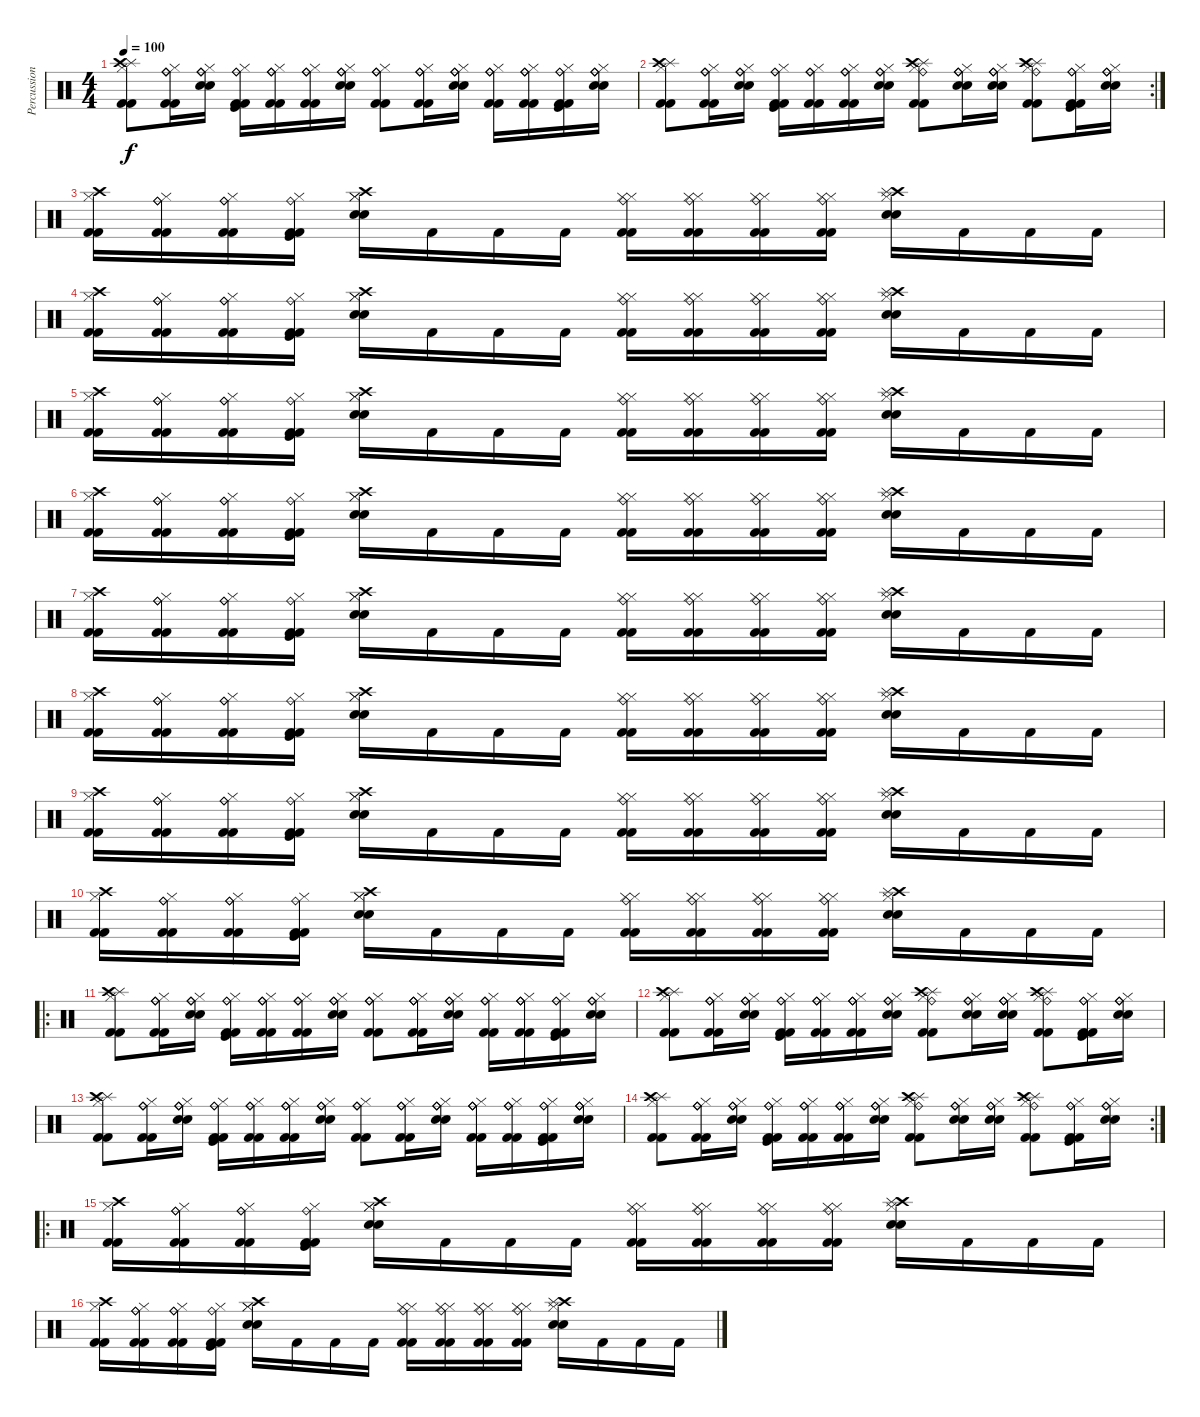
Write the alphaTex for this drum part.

\track ("Percussion" "Percussion") {instrument percussion}
\staff {score}
\articulation defaults
\ts (4 4)
\tempo 100
\clef neutral
\ks c
("Splash (hit)" "Crash high (hit)" "Hi-Hat (closed)" "Kick (hit) 2" "Kick (hit) 2").8{dy f} ("Ride (bell)" "Ride (bell)" "Ride (bell)" "Hi-Hat (closed)" "Kick (hit) 2" "Kick (hit) 2").16 ("Ride (bell)" "Ride (bell)" "Ride (bell)" "Hi-Hat (closed)" "Snare (hit) 2" "Snare (hit) 2").16 ("Ride (bell)" "Ride (bell)" "Kick (hit)" "Hi-Hat (closed)" "Kick (hit) 2" "Kick (hit) 2").16 ("Ride (bell)" "Ride (bell)" "Ride (bell)" "Hi-Hat (closed)" "Kick (hit) 2" "Kick (hit) 2").16 ("Ride (bell)" "Ride (bell)" "Ride (bell)" "Hi-Hat (closed)" "Kick (hit) 2" "Kick (hit) 2").16 ("Ride (bell)" "Ride (bell)" "Ride (bell)" "Hi-Hat (closed)" "Snare (hit) 2" "Snare (hit) 2").16 ("Ride (bell)" "Ride (bell)" "Ride (bell)" "Hi-Hat (closed)" "Kick (hit) 2" "Kick (hit) 2").8 ("Ride (bell)" "Ride (bell)" "Ride (bell)" "Hi-Hat (closed)" "Kick (hit) 2" "Kick (hit) 2").16 ("Ride (bell)" "Ride (bell)" "Ride (bell)" "Hi-Hat (closed)" "Snare (hit) 2" "Snare (hit) 2").16 ("Ride (bell)" "Ride (bell)" "Ride (bell)" "Hi-Hat (closed)" "Kick (hit) 2" "Kick (hit) 2").16 ("Ride (bell)" "Ride (bell)" "Ride (bell)" "Hi-Hat (closed)" "Kick (hit) 2" "Kick (hit) 2").16 ("Kick (hit)" "Ride (bell)" "Ride (bell)" "Hi-Hat (closed)" "Kick (hit) 2" "Kick (hit) 2").16 ("Ride (bell)" "Ride (bell)" "Ride (bell)" "Hi-Hat (closed)" "Snare (hit) 2" "Snare (hit) 2").16 |
\rc 2
("Splash (hit)" "Crash high (hit)" "Hi-Hat (closed)" "Kick (hit) 2" "Kick (hit) 2").8 ("Ride (bell)" "Ride (bell)" "Ride (bell)" "Hi-Hat (closed)" "Kick (hit) 2" "Kick (hit) 2").16 ("Ride (bell)" "Ride (bell)" "Ride (bell)" "Hi-Hat (closed)" "Snare (hit) 2" "Snare (hit) 2").16 ("Ride (bell)" "Ride (bell)" "Kick (hit)" "Hi-Hat (closed)" "Kick (hit) 2" "Kick (hit) 2").16 ("Ride (bell)" "Ride (bell)" "Ride (bell)" "Hi-Hat (closed)" "Kick (hit) 2" "Kick (hit) 2").16 ("Ride (bell)" "Ride (bell)" "Ride (bell)" "Hi-Hat (closed)" "Kick (hit) 2" "Kick (hit) 2").16 ("Ride (bell)" "Ride (bell)" "Ride (bell)" "Hi-Hat (closed)" "Snare (hit) 2" "Snare (hit) 2").16 ("Splash (hit)" "Ride (bell)" "Crash high (hit)" "Hi-Hat (closed)" "Kick (hit) 2" "Kick (hit) 2").8 ("Ride (bell)" "Ride (bell)" "Ride (bell)" "Hi-Hat (closed)" "Snare (hit) 2" "Snare (hit) 2").16 ("Ride (bell)" "Ride (bell)" "Ride (bell)" "Hi-Hat (closed)" "Snare (hit) 2" "Snare (hit) 2").16 ("Splash (hit)" "Ride (bell)" "Crash high (hit)" "Hi-Hat (closed)" "Kick (hit) 2" "Kick (hit) 2").8 ("Kick (hit)" "Ride (bell)" "Ride (bell)" "Hi-Hat (closed)" "Kick (hit) 2" "Kick (hit) 2").16 ("Ride (bell)" "Ride (bell)" "Ride (bell)" "Hi-Hat (closed)" "Snare (hit) 2" "Snare (hit) 2").16 |
("Crash high (hit)" "Hi-Hat (closed)" "Kick (hit) 2" "Kick (hit) 2").16 ("Ride (bell)" "Ride (bell)" "Hi-Hat (closed)" "Kick (hit) 2" "Kick (hit) 2").16 ("Ride (bell)" "Ride (bell)" "Hi-Hat (closed)" "Kick (hit) 2" "Kick (hit) 2").16 ("Ride (bell)" "Kick (hit)" "Hi-Hat (closed)" "Kick (hit) 2" "Kick (hit) 2").16 ("Crash high (hit)" "Hi-Hat (closed)" "Hi-Hat (closed)" "Snare (hit) 2" "Snare (hit) 2").16 "Kick (hit) 2".16 "Kick (hit) 2".16 "Kick (hit) 2".16 ("Ride (bell)" "Hi-Hat (closed)" "Hi-Hat (closed)" "Kick (hit) 2" "Kick (hit) 2").16 ("Ride (bell)" "Hi-Hat (closed)" "Hi-Hat (closed)" "Kick (hit) 2" "Kick (hit) 2").16 ("Ride (bell)" "Hi-Hat (closed)" "Hi-Hat (closed)" "Kick (hit) 2" "Kick (hit) 2").16 ("Ride (bell)" "Hi-Hat (closed)" "Hi-Hat (closed)" "Kick (hit) 2" "Kick (hit) 2").16 ("Crash high (hit)" "Splash (hit)" "Hi-Hat (closed)" "Snare (hit) 2" "Snare (hit) 2").16 "Kick (hit) 2".16 "Kick (hit) 2".16 "Kick (hit) 2".16 |
("Crash high (hit)" "Hi-Hat (closed)" "Kick (hit) 2" "Kick (hit) 2").16 ("Ride (bell)" "Ride (bell)" "Hi-Hat (closed)" "Kick (hit) 2" "Kick (hit) 2").16 ("Ride (bell)" "Ride (bell)" "Hi-Hat (closed)" "Kick (hit) 2" "Kick (hit) 2").16 ("Ride (bell)" "Kick (hit)" "Hi-Hat (closed)" "Kick (hit) 2" "Kick (hit) 2").16 ("Crash high (hit)" "Hi-Hat (closed)" "Hi-Hat (closed)" "Snare (hit) 2" "Snare (hit) 2").16 "Kick (hit) 2".16 "Kick (hit) 2".16 "Kick (hit) 2".16 ("Ride (bell)" "Hi-Hat (closed)" "Hi-Hat (closed)" "Kick (hit) 2" "Kick (hit) 2").16 ("Ride (bell)" "Hi-Hat (closed)" "Hi-Hat (closed)" "Kick (hit) 2" "Kick (hit) 2").16 ("Ride (bell)" "Hi-Hat (closed)" "Hi-Hat (closed)" "Kick (hit) 2" "Kick (hit) 2").16 ("Ride (bell)" "Hi-Hat (closed)" "Hi-Hat (closed)" "Kick (hit) 2" "Kick (hit) 2").16 ("Crash high (hit)" "Splash (hit)" "Hi-Hat (closed)" "Snare (hit) 2" "Snare (hit) 2").16 "Kick (hit) 2".16 "Kick (hit) 2".16 "Kick (hit) 2".16 |
("Crash high (hit)" "Hi-Hat (closed)" "Kick (hit) 2" "Kick (hit) 2").16 ("Ride (bell)" "Ride (bell)" "Hi-Hat (closed)" "Kick (hit) 2" "Kick (hit) 2").16 ("Ride (bell)" "Ride (bell)" "Hi-Hat (closed)" "Kick (hit) 2" "Kick (hit) 2").16 ("Ride (bell)" "Kick (hit)" "Hi-Hat (closed)" "Kick (hit) 2" "Kick (hit) 2").16 ("Crash high (hit)" "Hi-Hat (closed)" "Hi-Hat (closed)" "Snare (hit) 2" "Snare (hit) 2").16 "Kick (hit) 2".16 "Kick (hit) 2".16 "Kick (hit) 2".16 ("Ride (bell)" "Hi-Hat (closed)" "Hi-Hat (closed)" "Kick (hit) 2" "Kick (hit) 2").16 ("Ride (bell)" "Hi-Hat (closed)" "Hi-Hat (closed)" "Kick (hit) 2" "Kick (hit) 2").16 ("Ride (bell)" "Hi-Hat (closed)" "Hi-Hat (closed)" "Kick (hit) 2" "Kick (hit) 2").16 ("Ride (bell)" "Hi-Hat (closed)" "Hi-Hat (closed)" "Kick (hit) 2" "Kick (hit) 2").16 ("Crash high (hit)" "Splash (hit)" "Hi-Hat (closed)" "Snare (hit) 2" "Snare (hit) 2").16 "Kick (hit) 2".16 "Kick (hit) 2".16 "Kick (hit) 2".16 |
("Crash high (hit)" "Hi-Hat (closed)" "Kick (hit) 2" "Kick (hit) 2").16 ("Ride (bell)" "Ride (bell)" "Hi-Hat (closed)" "Kick (hit) 2" "Kick (hit) 2").16 ("Ride (bell)" "Ride (bell)" "Hi-Hat (closed)" "Kick (hit) 2" "Kick (hit) 2").16 ("Ride (bell)" "Kick (hit)" "Hi-Hat (closed)" "Kick (hit) 2" "Kick (hit) 2").16 ("Crash high (hit)" "Hi-Hat (closed)" "Hi-Hat (closed)" "Snare (hit) 2" "Snare (hit) 2").16 "Kick (hit) 2".16 "Kick (hit) 2".16 "Kick (hit) 2".16 ("Ride (bell)" "Hi-Hat (closed)" "Hi-Hat (closed)" "Kick (hit) 2" "Kick (hit) 2").16 ("Ride (bell)" "Hi-Hat (closed)" "Hi-Hat (closed)" "Kick (hit) 2" "Kick (hit) 2").16 ("Ride (bell)" "Hi-Hat (closed)" "Hi-Hat (closed)" "Kick (hit) 2" "Kick (hit) 2").16 ("Ride (bell)" "Hi-Hat (closed)" "Hi-Hat (closed)" "Kick (hit) 2" "Kick (hit) 2").16 ("Crash high (hit)" "Splash (hit)" "Hi-Hat (closed)" "Snare (hit) 2" "Snare (hit) 2").16 "Kick (hit) 2".16 "Kick (hit) 2".16 "Kick (hit) 2".16 |
("Crash high (hit)" "Hi-Hat (closed)" "Kick (hit) 2" "Kick (hit) 2").16 ("Ride (bell)" "Ride (bell)" "Hi-Hat (closed)" "Kick (hit) 2" "Kick (hit) 2").16 ("Ride (bell)" "Ride (bell)" "Hi-Hat (closed)" "Kick (hit) 2" "Kick (hit) 2").16 ("Ride (bell)" "Kick (hit)" "Hi-Hat (closed)" "Kick (hit) 2" "Kick (hit) 2").16 ("Crash high (hit)" "Hi-Hat (closed)" "Hi-Hat (closed)" "Snare (hit) 2" "Snare (hit) 2").16 "Kick (hit) 2".16 "Kick (hit) 2".16 "Kick (hit) 2".16 ("Ride (bell)" "Hi-Hat (closed)" "Hi-Hat (closed)" "Kick (hit) 2" "Kick (hit) 2").16 ("Ride (bell)" "Hi-Hat (closed)" "Hi-Hat (closed)" "Kick (hit) 2" "Kick (hit) 2").16 ("Ride (bell)" "Hi-Hat (closed)" "Hi-Hat (closed)" "Kick (hit) 2" "Kick (hit) 2").16 ("Ride (bell)" "Hi-Hat (closed)" "Hi-Hat (closed)" "Kick (hit) 2" "Kick (hit) 2").16 ("Crash high (hit)" "Splash (hit)" "Hi-Hat (closed)" "Snare (hit) 2" "Snare (hit) 2").16 "Kick (hit) 2".16 "Kick (hit) 2".16 "Kick (hit) 2".16 |
("Crash high (hit)" "Hi-Hat (closed)" "Kick (hit) 2" "Kick (hit) 2").16 ("Ride (bell)" "Ride (bell)" "Hi-Hat (closed)" "Kick (hit) 2" "Kick (hit) 2").16 ("Ride (bell)" "Ride (bell)" "Hi-Hat (closed)" "Kick (hit) 2" "Kick (hit) 2").16 ("Ride (bell)" "Kick (hit)" "Hi-Hat (closed)" "Kick (hit) 2" "Kick (hit) 2").16 ("Crash high (hit)" "Hi-Hat (closed)" "Hi-Hat (closed)" "Snare (hit) 2" "Snare (hit) 2").16 "Kick (hit) 2".16 "Kick (hit) 2".16 "Kick (hit) 2".16 ("Ride (bell)" "Hi-Hat (closed)" "Hi-Hat (closed)" "Kick (hit) 2" "Kick (hit) 2").16 ("Ride (bell)" "Hi-Hat (closed)" "Hi-Hat (closed)" "Kick (hit) 2" "Kick (hit) 2").16 ("Ride (bell)" "Hi-Hat (closed)" "Hi-Hat (closed)" "Kick (hit) 2" "Kick (hit) 2").16 ("Ride (bell)" "Hi-Hat (closed)" "Hi-Hat (closed)" "Kick (hit) 2" "Kick (hit) 2").16 ("Crash high (hit)" "Splash (hit)" "Hi-Hat (closed)" "Snare (hit) 2" "Snare (hit) 2").16 "Kick (hit) 2".16 "Kick (hit) 2".16 "Kick (hit) 2".16 |
("Crash high (hit)" "Hi-Hat (closed)" "Kick (hit) 2" "Kick (hit) 2").16 ("Ride (bell)" "Ride (bell)" "Hi-Hat (closed)" "Kick (hit) 2" "Kick (hit) 2").16 ("Ride (bell)" "Ride (bell)" "Hi-Hat (closed)" "Kick (hit) 2" "Kick (hit) 2").16 ("Ride (bell)" "Kick (hit)" "Hi-Hat (closed)" "Kick (hit) 2" "Kick (hit) 2").16 ("Crash high (hit)" "Hi-Hat (closed)" "Hi-Hat (closed)" "Snare (hit) 2" "Snare (hit) 2").16 "Kick (hit) 2".16 "Kick (hit) 2".16 "Kick (hit) 2".16 ("Ride (bell)" "Hi-Hat (closed)" "Hi-Hat (closed)" "Kick (hit) 2" "Kick (hit) 2").16 ("Ride (bell)" "Hi-Hat (closed)" "Hi-Hat (closed)" "Kick (hit) 2" "Kick (hit) 2").16 ("Ride (bell)" "Hi-Hat (closed)" "Hi-Hat (closed)" "Kick (hit) 2" "Kick (hit) 2").16 ("Ride (bell)" "Hi-Hat (closed)" "Hi-Hat (closed)" "Kick (hit) 2" "Kick (hit) 2").16 ("Crash high (hit)" "Splash (hit)" "Hi-Hat (closed)" "Snare (hit) 2" "Snare (hit) 2").16 "Kick (hit) 2".16 "Kick (hit) 2".16 "Kick (hit) 2".16 |
("Crash high (hit)" "Hi-Hat (closed)" "Kick (hit) 2" "Kick (hit) 2").16 ("Ride (bell)" "Ride (bell)" "Hi-Hat (closed)" "Kick (hit) 2" "Kick (hit) 2").16 ("Ride (bell)" "Ride (bell)" "Hi-Hat (closed)" "Kick (hit) 2" "Kick (hit) 2").16 ("Ride (bell)" "Kick (hit)" "Hi-Hat (closed)" "Kick (hit) 2" "Kick (hit) 2").16 ("Crash high (hit)" "Hi-Hat (closed)" "Hi-Hat (closed)" "Snare (hit) 2" "Snare (hit) 2").16 "Kick (hit) 2".16 "Kick (hit) 2".16 "Kick (hit) 2".16 ("Ride (bell)" "Hi-Hat (closed)" "Hi-Hat (closed)" "Kick (hit) 2" "Kick (hit) 2").16 ("Ride (bell)" "Hi-Hat (closed)" "Hi-Hat (closed)" "Kick (hit) 2" "Kick (hit) 2").16 ("Ride (bell)" "Hi-Hat (closed)" "Hi-Hat (closed)" "Kick (hit) 2" "Kick (hit) 2").16 ("Ride (bell)" "Hi-Hat (closed)" "Hi-Hat (closed)" "Kick (hit) 2" "Kick (hit) 2").16 ("Crash high (hit)" "Splash (hit)" "Hi-Hat (closed)" "Snare (hit) 2" "Snare (hit) 2").16 "Kick (hit) 2".16 "Kick (hit) 2".16 "Kick (hit) 2".16 |
\ro
("Splash (hit)" "Crash high (hit)" "Hi-Hat (closed)" "Kick (hit) 2" "Kick (hit) 2").8 ("Ride (bell)" "Ride (bell)" "Ride (bell)" "Hi-Hat (closed)" "Kick (hit) 2" "Kick (hit) 2").16 ("Ride (bell)" "Ride (bell)" "Ride (bell)" "Hi-Hat (closed)" "Snare (hit) 2" "Snare (hit) 2").16 ("Ride (bell)" "Ride (bell)" "Kick (hit)" "Hi-Hat (closed)" "Kick (hit) 2" "Kick (hit) 2").16 ("Ride (bell)" "Ride (bell)" "Ride (bell)" "Hi-Hat (closed)" "Kick (hit) 2" "Kick (hit) 2").16 ("Ride (bell)" "Ride (bell)" "Ride (bell)" "Hi-Hat (closed)" "Kick (hit) 2" "Kick (hit) 2").16 ("Ride (bell)" "Ride (bell)" "Ride (bell)" "Hi-Hat (closed)" "Snare (hit) 2" "Snare (hit) 2").16 ("Ride (bell)" "Ride (bell)" "Ride (bell)" "Hi-Hat (closed)" "Kick (hit) 2" "Kick (hit) 2").8 ("Ride (bell)" "Ride (bell)" "Ride (bell)" "Hi-Hat (closed)" "Kick (hit) 2" "Kick (hit) 2").16 ("Ride (bell)" "Ride (bell)" "Ride (bell)" "Hi-Hat (closed)" "Snare (hit) 2" "Snare (hit) 2").16 ("Ride (bell)" "Ride (bell)" "Ride (bell)" "Hi-Hat (closed)" "Kick (hit) 2" "Kick (hit) 2").16 ("Ride (bell)" "Ride (bell)" "Ride (bell)" "Hi-Hat (closed)" "Kick (hit) 2" "Kick (hit) 2").16 ("Kick (hit)" "Ride (bell)" "Ride (bell)" "Hi-Hat (closed)" "Kick (hit) 2" "Kick (hit) 2").16 ("Ride (bell)" "Ride (bell)" "Ride (bell)" "Hi-Hat (closed)" "Snare (hit) 2" "Snare (hit) 2").16 |
("Splash (hit)" "Crash high (hit)" "Hi-Hat (closed)" "Kick (hit) 2" "Kick (hit) 2").8 ("Ride (bell)" "Ride (bell)" "Ride (bell)" "Hi-Hat (closed)" "Kick (hit) 2" "Kick (hit) 2").16 ("Ride (bell)" "Ride (bell)" "Ride (bell)" "Hi-Hat (closed)" "Snare (hit) 2" "Snare (hit) 2").16 ("Ride (bell)" "Ride (bell)" "Kick (hit)" "Hi-Hat (closed)" "Kick (hit) 2" "Kick (hit) 2").16 ("Ride (bell)" "Ride (bell)" "Ride (bell)" "Hi-Hat (closed)" "Kick (hit) 2" "Kick (hit) 2").16 ("Ride (bell)" "Ride (bell)" "Ride (bell)" "Hi-Hat (closed)" "Kick (hit) 2" "Kick (hit) 2").16 ("Ride (bell)" "Ride (bell)" "Ride (bell)" "Hi-Hat (closed)" "Snare (hit) 2" "Snare (hit) 2").16 ("Splash (hit)" "Ride (bell)" "Crash high (hit)" "Hi-Hat (closed)" "Kick (hit) 2" "Kick (hit) 2").8 ("Ride (bell)" "Ride (bell)" "Ride (bell)" "Hi-Hat (closed)" "Snare (hit) 2" "Snare (hit) 2").16 ("Ride (bell)" "Ride (bell)" "Ride (bell)" "Hi-Hat (closed)" "Snare (hit) 2" "Snare (hit) 2").16 ("Splash (hit)" "Ride (bell)" "Crash high (hit)" "Hi-Hat (closed)" "Kick (hit) 2" "Kick (hit) 2").8 ("Kick (hit)" "Ride (bell)" "Ride (bell)" "Hi-Hat (closed)" "Kick (hit) 2" "Kick (hit) 2").16 ("Ride (bell)" "Ride (bell)" "Ride (bell)" "Hi-Hat (closed)" "Snare (hit) 2" "Snare (hit) 2").16 |
("Splash (hit)" "Crash high (hit)" "Hi-Hat (closed)" "Kick (hit) 2" "Kick (hit) 2").8 ("Ride (bell)" "Ride (bell)" "Ride (bell)" "Hi-Hat (closed)" "Kick (hit) 2" "Kick (hit) 2").16 ("Ride (bell)" "Ride (bell)" "Ride (bell)" "Hi-Hat (closed)" "Snare (hit) 2" "Snare (hit) 2").16 ("Ride (bell)" "Ride (bell)" "Kick (hit)" "Hi-Hat (closed)" "Kick (hit) 2" "Kick (hit) 2").16 ("Ride (bell)" "Ride (bell)" "Ride (bell)" "Hi-Hat (closed)" "Kick (hit) 2" "Kick (hit) 2").16 ("Ride (bell)" "Ride (bell)" "Ride (bell)" "Hi-Hat (closed)" "Kick (hit) 2" "Kick (hit) 2").16 ("Ride (bell)" "Ride (bell)" "Ride (bell)" "Hi-Hat (closed)" "Snare (hit) 2" "Snare (hit) 2").16 ("Ride (bell)" "Ride (bell)" "Ride (bell)" "Hi-Hat (closed)" "Kick (hit) 2" "Kick (hit) 2").8 ("Ride (bell)" "Ride (bell)" "Ride (bell)" "Hi-Hat (closed)" "Kick (hit) 2" "Kick (hit) 2").16 ("Ride (bell)" "Ride (bell)" "Ride (bell)" "Hi-Hat (closed)" "Snare (hit) 2" "Snare (hit) 2").16 ("Ride (bell)" "Ride (bell)" "Ride (bell)" "Hi-Hat (closed)" "Kick (hit) 2" "Kick (hit) 2").16 ("Ride (bell)" "Ride (bell)" "Ride (bell)" "Hi-Hat (closed)" "Kick (hit) 2" "Kick (hit) 2").16 ("Kick (hit)" "Ride (bell)" "Ride (bell)" "Hi-Hat (closed)" "Kick (hit) 2" "Kick (hit) 2").16 ("Ride (bell)" "Ride (bell)" "Ride (bell)" "Hi-Hat (closed)" "Snare (hit) 2" "Snare (hit) 2").16 |
\rc 2
("Splash (hit)" "Crash high (hit)" "Hi-Hat (closed)" "Kick (hit) 2" "Kick (hit) 2").8 ("Ride (bell)" "Ride (bell)" "Ride (bell)" "Hi-Hat (closed)" "Kick (hit) 2" "Kick (hit) 2").16 ("Ride (bell)" "Ride (bell)" "Ride (bell)" "Hi-Hat (closed)" "Snare (hit) 2" "Snare (hit) 2").16 ("Ride (bell)" "Ride (bell)" "Kick (hit)" "Hi-Hat (closed)" "Kick (hit) 2" "Kick (hit) 2").16 ("Ride (bell)" "Ride (bell)" "Ride (bell)" "Hi-Hat (closed)" "Kick (hit) 2" "Kick (hit) 2").16 ("Ride (bell)" "Ride (bell)" "Ride (bell)" "Hi-Hat (closed)" "Kick (hit) 2" "Kick (hit) 2").16 ("Ride (bell)" "Ride (bell)" "Ride (bell)" "Hi-Hat (closed)" "Snare (hit) 2" "Snare (hit) 2").16 ("Splash (hit)" "Ride (bell)" "Crash high (hit)" "Hi-Hat (closed)" "Kick (hit) 2" "Kick (hit) 2").8 ("Ride (bell)" "Ride (bell)" "Ride (bell)" "Hi-Hat (closed)" "Snare (hit) 2" "Snare (hit) 2").16 ("Ride (bell)" "Ride (bell)" "Ride (bell)" "Hi-Hat (closed)" "Snare (hit) 2" "Snare (hit) 2").16 ("Splash (hit)" "Ride (bell)" "Crash high (hit)" "Hi-Hat (closed)" "Kick (hit) 2" "Kick (hit) 2").8 ("Kick (hit)" "Ride (bell)" "Ride (bell)" "Hi-Hat (closed)" "Kick (hit) 2" "Kick (hit) 2").16 ("Ride (bell)" "Ride (bell)" "Ride (bell)" "Hi-Hat (closed)" "Snare (hit) 2" "Snare (hit) 2").16 |
\ro
("Crash high (hit)" "Hi-Hat (closed)" "Kick (hit) 2" "Kick (hit) 2").16 ("Ride (bell)" "Ride (bell)" "Hi-Hat (closed)" "Kick (hit) 2" "Kick (hit) 2").16 ("Ride (bell)" "Ride (bell)" "Hi-Hat (closed)" "Kick (hit) 2" "Kick (hit) 2").16 ("Ride (bell)" "Kick (hit)" "Hi-Hat (closed)" "Kick (hit) 2" "Kick (hit) 2").16 ("Crash high (hit)" "Hi-Hat (closed)" "Hi-Hat (closed)" "Snare (hit) 2" "Snare (hit) 2").16 "Kick (hit) 2".16 "Kick (hit) 2".16 "Kick (hit) 2".16 ("Ride (bell)" "Hi-Hat (closed)" "Hi-Hat (closed)" "Kick (hit) 2" "Kick (hit) 2").16 ("Ride (bell)" "Hi-Hat (closed)" "Hi-Hat (closed)" "Kick (hit) 2" "Kick (hit) 2").16 ("Ride (bell)" "Hi-Hat (closed)" "Hi-Hat (closed)" "Kick (hit) 2" "Kick (hit) 2").16 ("Ride (bell)" "Hi-Hat (closed)" "Hi-Hat (closed)" "Kick (hit) 2" "Kick (hit) 2").16 ("Crash high (hit)" "Splash (hit)" "Hi-Hat (closed)" "Snare (hit) 2" "Snare (hit) 2").16 "Kick (hit) 2".16 "Kick (hit) 2".16 "Kick (hit) 2".16 |
("Crash high (hit)" "Hi-Hat (closed)" "Kick (hit) 2" "Kick (hit) 2").16 ("Ride (bell)" "Ride (bell)" "Hi-Hat (closed)" "Kick (hit) 2" "Kick (hit) 2").16 ("Ride (bell)" "Ride (bell)" "Hi-Hat (closed)" "Kick (hit) 2" "Kick (hit) 2").16 ("Ride (bell)" "Kick (hit)" "Hi-Hat (closed)" "Kick (hit) 2" "Kick (hit) 2").16 ("Crash high (hit)" "Hi-Hat (closed)" "Hi-Hat (closed)" "Snare (hit) 2" "Snare (hit) 2").16 "Kick (hit) 2".16 "Kick (hit) 2".16 "Kick (hit) 2".16 ("Ride (bell)" "Hi-Hat (closed)" "Hi-Hat (closed)" "Kick (hit) 2" "Kick (hit) 2").16 ("Ride (bell)" "Hi-Hat (closed)" "Hi-Hat (closed)" "Kick (hit) 2" "Kick (hit) 2").16 ("Ride (bell)" "Hi-Hat (closed)" "Hi-Hat (closed)" "Kick (hit) 2" "Kick (hit) 2").16 ("Ride (bell)" "Hi-Hat (closed)" "Hi-Hat (closed)" "Kick (hit) 2" "Kick (hit) 2").16 ("Crash high (hit)" "Splash (hit)" "Hi-Hat (closed)" "Snare (hit) 2" "Snare (hit) 2").16 "Kick (hit) 2".16 "Kick (hit) 2".16 "Kick (hit) 2".16
